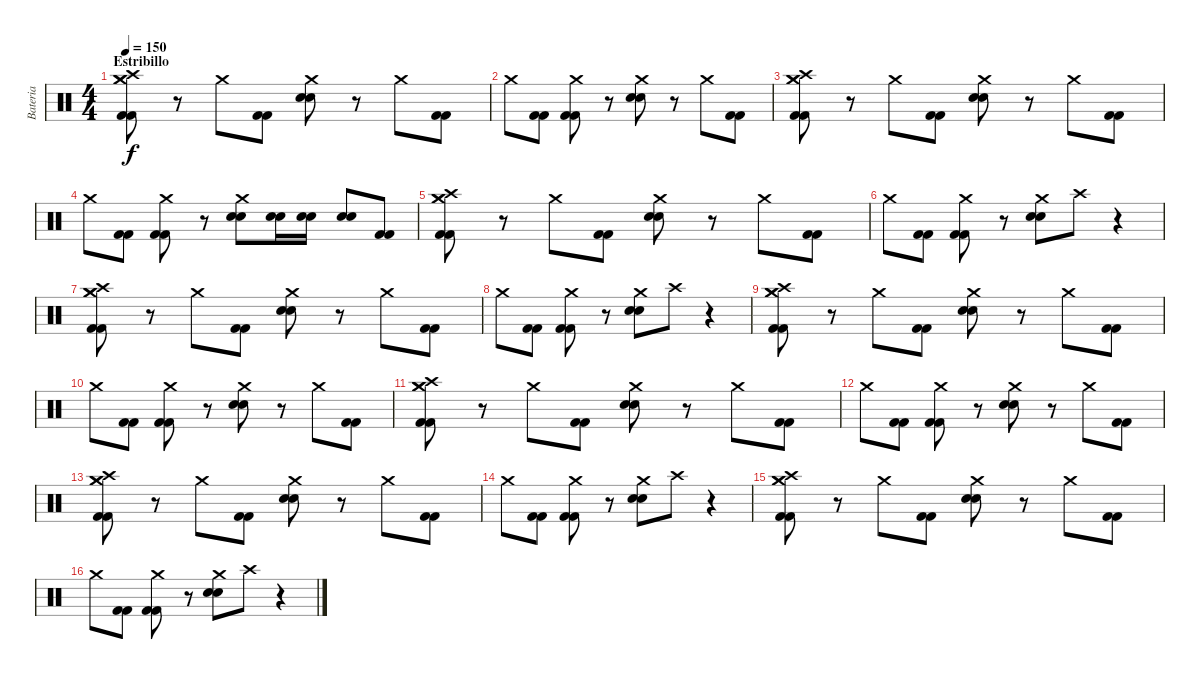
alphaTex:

\track ("Bateria" "Bateria") {instrument percussion}
\staff {score}
\articulation defaults
\ts (4 4)
\section ("" "Estribillo")
\tempo 150
\clef neutral
\ks c
("Crash medium (hit)" "Crash high (hit)" "Crash medium (hit)" "Kick (hit) 2" "Kick (hit) 2").8{dy f} r.8 "Crash medium (hit)".8 ("Kick (hit) 2" "Kick (hit) 2").8 ("Crash medium (hit)" "Electric Snare (hit)" "Electric Snare (hit)").8 r.8 "Crash medium (hit)".8 ("Kick (hit) 2" "Kick (hit) 2").8 |
"Crash medium (hit)".8 ("Kick (hit) 2" "Kick (hit) 2").8 ("Crash medium (hit)" "Kick (hit) 2" "Kick (hit) 2").8 r.8 ("Crash medium (hit)" "Electric Snare (hit)" "Electric Snare (hit)").8 r.8 "Crash medium (hit)".8 ("Kick (hit) 2" "Kick (hit) 2").8 |
("Crash medium (hit)" "Crash high (hit)" "Crash medium (hit)" "Kick (hit) 2" "Kick (hit) 2").8 r.8 "Crash medium (hit)".8 ("Kick (hit) 2" "Kick (hit) 2").8 ("Crash medium (hit)" "Electric Snare (hit)" "Electric Snare (hit)").8 r.8 "Crash medium (hit)".8 ("Kick (hit) 2" "Kick (hit) 2").8 |
"Crash medium (hit)".8 ("Kick (hit) 2" "Kick (hit) 2").8 ("Crash medium (hit)" "Kick (hit) 2" "Kick (hit) 2").8 r.8 ("Crash medium (hit)" "Electric Snare (hit)" "Electric Snare (hit)").8 ("Electric Snare (hit)" "Electric Snare (hit)").16 ("Electric Snare (hit)" "Electric Snare (hit)").16 ("Electric Snare (hit)" "Electric Snare (hit)").8 ("Kick (hit) 2" "Kick (hit) 2").8 |
("Crash medium (hit)" "Crash high (hit)" "Crash medium (hit)" "Kick (hit) 2" "Kick (hit) 2").8 r.8 "Crash medium (hit)".8 ("Kick (hit) 2" "Kick (hit) 2").8 ("Crash medium (hit)" "Electric Snare (hit)" "Electric Snare (hit)").8 r.8 "Crash medium (hit)".8 ("Kick (hit) 2" "Kick (hit) 2").8 |
"Crash medium (hit)".8 ("Kick (hit) 2" "Kick (hit) 2").8 ("Crash medium (hit)" "Kick (hit) 2" "Kick (hit) 2").8 r.8 ("Crash medium (hit)" "Electric Snare (hit)" "Electric Snare (hit)").8 "Crash high (hit)".8 r.4 |
("Crash medium (hit)" "Crash high (hit)" "Crash medium (hit)" "Kick (hit) 2" "Kick (hit) 2").8 r.8 "Crash medium (hit)".8 ("Kick (hit) 2" "Kick (hit) 2").8 ("Crash medium (hit)" "Electric Snare (hit)" "Electric Snare (hit)").8 r.8 "Crash medium (hit)".8 ("Kick (hit) 2" "Kick (hit) 2").8 |
"Crash medium (hit)".8 ("Kick (hit) 2" "Kick (hit) 2").8 ("Crash medium (hit)" "Kick (hit) 2" "Kick (hit) 2").8 r.8 ("Crash medium (hit)" "Electric Snare (hit)" "Electric Snare (hit)").8 "Crash high (hit)".8 r.4 |
("Crash medium (hit)" "Crash high (hit)" "Crash medium (hit)" "Kick (hit) 2" "Kick (hit) 2").8 r.8 "Crash medium (hit)".8 ("Kick (hit) 2" "Kick (hit) 2").8 ("Crash medium (hit)" "Electric Snare (hit)" "Electric Snare (hit)").8 r.8 "Crash medium (hit)".8 ("Kick (hit) 2" "Kick (hit) 2").8 |
"Crash medium (hit)".8 ("Kick (hit) 2" "Kick (hit) 2").8 ("Crash medium (hit)" "Kick (hit) 2" "Kick (hit) 2").8 r.8 ("Crash medium (hit)" "Electric Snare (hit)" "Electric Snare (hit)").8 r.8 "Crash medium (hit)".8 ("Kick (hit) 2" "Kick (hit) 2").8 |
("Crash medium (hit)" "Crash high (hit)" "Crash medium (hit)" "Kick (hit) 2" "Kick (hit) 2").8 r.8 "Crash medium (hit)".8 ("Kick (hit) 2" "Kick (hit) 2").8 ("Crash medium (hit)" "Electric Snare (hit)" "Electric Snare (hit)").8 r.8 "Crash medium (hit)".8 ("Kick (hit) 2" "Kick (hit) 2").8 |
"Crash medium (hit)".8 ("Kick (hit) 2" "Kick (hit) 2").8 ("Crash medium (hit)" "Kick (hit) 2" "Kick (hit) 2").8 r.8 ("Crash medium (hit)" "Electric Snare (hit)" "Electric Snare (hit)").8 r.8 "Crash medium (hit)".8 ("Kick (hit) 2" "Kick (hit) 2").8 |
("Crash medium (hit)" "Crash high (hit)" "Crash medium (hit)" "Kick (hit) 2" "Kick (hit) 2").8 r.8 "Crash medium (hit)".8 ("Kick (hit) 2" "Kick (hit) 2").8 ("Crash medium (hit)" "Electric Snare (hit)" "Electric Snare (hit)").8 r.8 "Crash medium (hit)".8 ("Kick (hit) 2" "Kick (hit) 2").8 |
"Crash medium (hit)".8 ("Kick (hit) 2" "Kick (hit) 2").8 ("Crash medium (hit)" "Kick (hit) 2" "Kick (hit) 2").8 r.8 ("Crash medium (hit)" "Electric Snare (hit)" "Electric Snare (hit)").8 "Crash high (hit)".8 r.4 |
("Crash medium (hit)" "Crash high (hit)" "Crash medium (hit)" "Kick (hit) 2" "Kick (hit) 2").8 r.8 "Crash medium (hit)".8 ("Kick (hit) 2" "Kick (hit) 2").8 ("Crash medium (hit)" "Electric Snare (hit)" "Electric Snare (hit)").8 r.8 "Crash medium (hit)".8 ("Kick (hit) 2" "Kick (hit) 2").8 |
"Crash medium (hit)".8 ("Kick (hit) 2" "Kick (hit) 2").8 ("Crash medium (hit)" "Kick (hit) 2" "Kick (hit) 2").8 r.8 ("Crash medium (hit)" "Electric Snare (hit)" "Electric Snare (hit)").8 "Crash high (hit)".8 r.4
